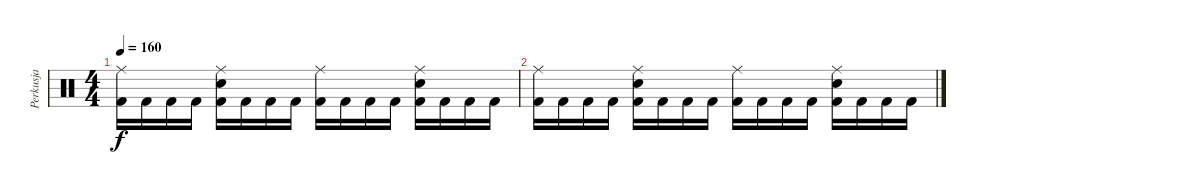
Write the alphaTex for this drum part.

\track ("Perkusja" "Perkusja") {instrument percussion}
\staff {score}
\articulation defaults
\ts (4 4)
\tempo 160
\clef neutral
\ks c
("Ride (middle)" "Kick (hit) 2").16{dy f} "Kick (hit) 2".16 "Kick (hit) 2".16 "Kick (hit) 2".16 ("Ride (middle)" "Electric Snare (hit)" "Kick (hit) 2").16 "Kick (hit) 2".16 "Kick (hit) 2".16 "Kick (hit) 2".16 ("Ride (middle)" "Kick (hit) 2").16 "Kick (hit) 2".16 "Kick (hit) 2".16 "Kick (hit) 2".16 ("Ride (middle)" "Electric Snare (hit)" "Kick (hit) 2").16 "Kick (hit) 2".16 "Kick (hit) 2".16 "Kick (hit) 2".16 |
("Ride (middle)" "Kick (hit) 2").16 "Kick (hit) 2".16 "Kick (hit) 2".16 "Kick (hit) 2".16 ("Ride (middle)" "Electric Snare (hit)" "Kick (hit) 2").16 "Kick (hit) 2".16 "Kick (hit) 2".16 "Kick (hit) 2".16 ("Ride (middle)" "Kick (hit) 2").16 "Kick (hit) 2".16 "Kick (hit) 2".16 "Kick (hit) 2".16 ("Ride (middle)" "Electric Snare (hit)" "Kick (hit) 2").16 "Kick (hit) 2".16 "Kick (hit) 2".16 "Kick (hit) 2".16
